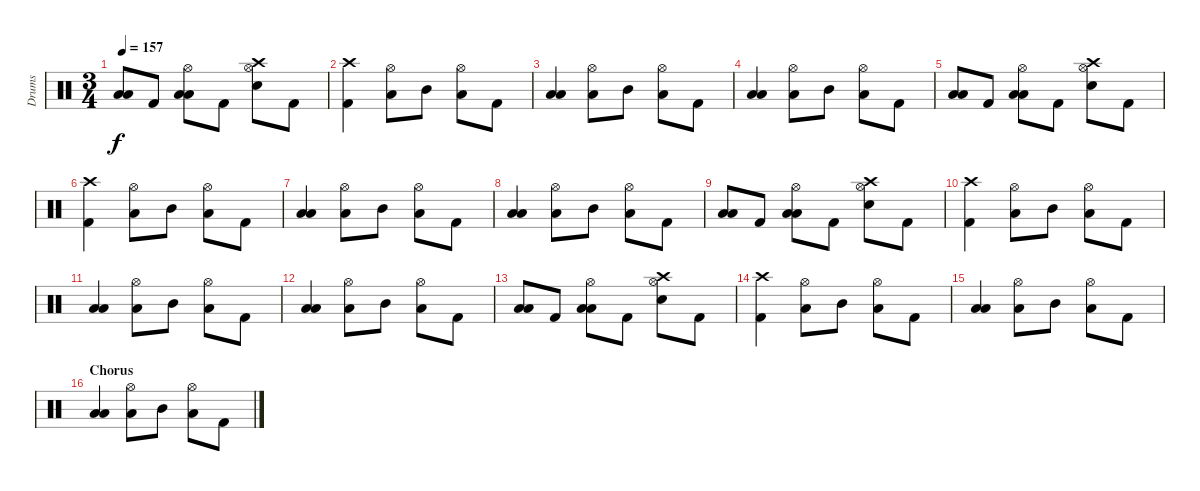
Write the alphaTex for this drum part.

\track ("Drums" "Drums") {instrument percussion}
\staff {score}
\articulation defaults
\ts (3 4)
\tempo 157
\clef neutral
\ks c
("Low Tom (hit)" "Low Floor Tom (hit)").8{dy f} "Kick (hit) 2".8 ("Hi-Hat (open)" "Low Tom (hit)" "Low Floor Tom (hit)").8 "Kick (hit) 2".8 ("Crash high (hit)" "Hi-Hat (open)" "Electric Snare (hit)").8 "Kick (hit) 2".8 |
("Crash high (hit)" "Kick (hit) 2").4 ("Hi-Hat (open)" "Low Floor Tom (hit)").8 "Mid Tom (hit)".8 ("Hi-Hat (open)" "Low Floor Tom (hit)").8 "Kick (hit) 2".8 |
("Low Tom (hit)" "Low Floor Tom (hit)").4 ("Hi-Hat (open)" "Low Floor Tom (hit)").8 "Mid Tom (hit)".8 ("Hi-Hat (open)" "Low Floor Tom (hit)").8 "Kick (hit) 2".8 |
("Low Tom (hit)" "Low Floor Tom (hit)").4 ("Hi-Hat (open)" "Low Floor Tom (hit)").8 "Mid Tom (hit)".8 ("Hi-Hat (open)" "Low Floor Tom (hit)").8 "Kick (hit) 2".8 |
("Low Tom (hit)" "Low Floor Tom (hit)").8 "Kick (hit) 2".8 ("Hi-Hat (open)" "Low Tom (hit)" "Low Floor Tom (hit)").8 "Kick (hit) 2".8 ("Crash high (hit)" "Hi-Hat (open)" "Electric Snare (hit)").8 "Kick (hit) 2".8 |
("Crash high (hit)" "Kick (hit) 2").4 ("Hi-Hat (open)" "Low Floor Tom (hit)").8 "Mid Tom (hit)".8 ("Hi-Hat (open)" "Low Floor Tom (hit)").8 "Kick (hit) 2".8 |
("Low Tom (hit)" "Low Floor Tom (hit)").4 ("Hi-Hat (open)" "Low Floor Tom (hit)").8 "Mid Tom (hit)".8 ("Hi-Hat (open)" "Low Floor Tom (hit)").8 "Kick (hit) 2".8 |
("Low Tom (hit)" "Low Floor Tom (hit)").4 ("Hi-Hat (open)" "Low Floor Tom (hit)").8 "Mid Tom (hit)".8 ("Hi-Hat (open)" "Low Floor Tom (hit)").8 "Kick (hit) 2".8 |
("Low Tom (hit)" "Low Floor Tom (hit)").8 "Kick (hit) 2".8 ("Hi-Hat (open)" "Low Tom (hit)" "Low Floor Tom (hit)").8 "Kick (hit) 2".8 ("Crash high (hit)" "Hi-Hat (open)" "Electric Snare (hit)").8 "Kick (hit) 2".8 |
("Crash high (hit)" "Kick (hit) 2").4 ("Hi-Hat (open)" "Low Floor Tom (hit)").8 "Mid Tom (hit)".8 ("Hi-Hat (open)" "Low Floor Tom (hit)").8 "Kick (hit) 2".8 |
("Low Tom (hit)" "Low Floor Tom (hit)").4 ("Hi-Hat (open)" "Low Floor Tom (hit)").8 "Mid Tom (hit)".8 ("Hi-Hat (open)" "Low Floor Tom (hit)").8 "Kick (hit) 2".8 |
("Low Tom (hit)" "Low Floor Tom (hit)").4 ("Hi-Hat (open)" "Low Floor Tom (hit)").8 "Mid Tom (hit)".8 ("Hi-Hat (open)" "Low Floor Tom (hit)").8 "Kick (hit) 2".8 |
("Low Tom (hit)" "Low Floor Tom (hit)").8 "Kick (hit) 2".8 ("Hi-Hat (open)" "Low Tom (hit)" "Low Floor Tom (hit)").8 "Kick (hit) 2".8 ("Crash high (hit)" "Hi-Hat (open)" "Electric Snare (hit)").8 "Kick (hit) 2".8 |
("Crash high (hit)" "Kick (hit) 2").4 ("Hi-Hat (open)" "Low Floor Tom (hit)").8 "Mid Tom (hit)".8 ("Hi-Hat (open)" "Low Floor Tom (hit)").8 "Kick (hit) 2".8 |
("Low Tom (hit)" "Low Floor Tom (hit)").4 ("Hi-Hat (open)" "Low Floor Tom (hit)").8 "Mid Tom (hit)".8 ("Hi-Hat (open)" "Low Floor Tom (hit)").8 "Kick (hit) 2".8 |
\section ("" "Chorus")
("Low Tom (hit)" "Low Floor Tom (hit)").4 ("Hi-Hat (open)" "Low Floor Tom (hit)").8 "Mid Tom (hit)".8 ("Hi-Hat (open)" "Low Floor Tom (hit)").8 "Kick (hit) 2".8
